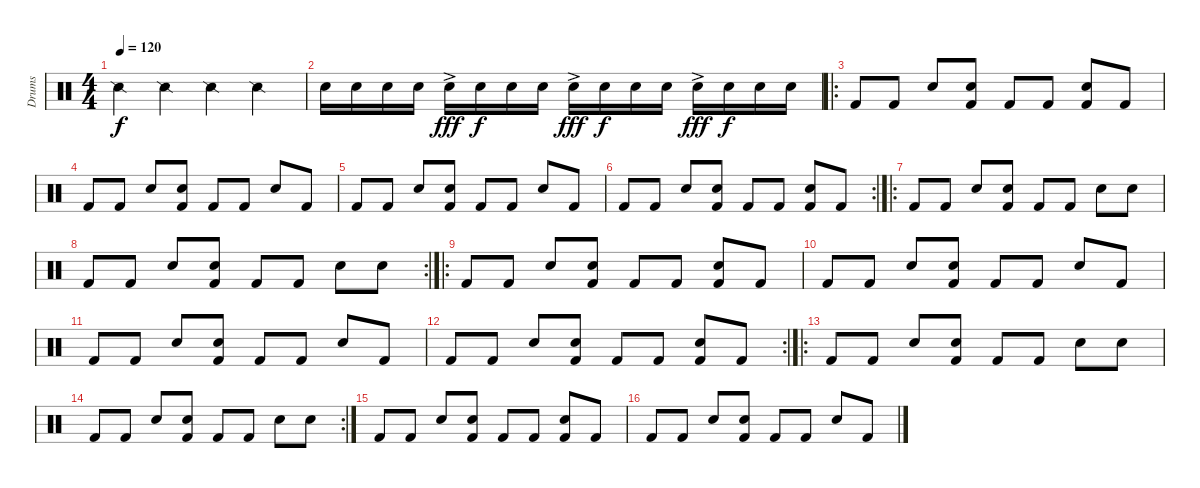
\track ("Drums" "Drums") {instrument percussion}
\staff {score}
\articulation defaults
\ts (4 4)
\tempo 120
\clef neutral
\ks c "Snare (side stick) 2".4{dy f} "Snare (side stick) 2".4 "Snare (side stick) 2".4 "Snare (side stick) 2".4
|
"Snare (hit) 2".16 "Snare (hit) 2".16 "Snare (hit) 2".16 "Snare (hit) 2".16 "Snare (hit) 2"{ac}.16{dy fff} "Snare (hit) 2".16{dy f} "Snare (hit) 2".16 "Snare (hit) 2".16 "Snare (hit) 2"{ac}.16{dy fff} "Snare (hit) 2".16{dy f} "Snare (hit) 2".16 "Snare (hit) 2".16 "Snare (hit) 2"{ac}.16{dy fff} "Snare (hit) 2".16{dy f} "Snare (hit) 2".16 "Snare (hit) 2".16 |
\ro "Kick (hit) 2".8 "Kick (hit) 2".8 "Snare (hit) 2".8
("Snare (hit) 2" "Kick (hit) 2").8 "Kick (hit) 2".8 "Kick (hit) 2".8 ("Snare (hit) 2" "Kick (hit) 2").8 "Kick (hit) 2".8 |
"Kick (hit) 2".8 "Kick (hit) 2".8 "Snare (hit) 2".8 ("Snare (hit) 2" "Kick (hit) 2").8 "Kick (hit) 2".8 "Kick (hit) 2".8 "Snare (hit) 2".8 "Kick (hit) 2".8 |
"Kick (hit) 2".8 "Kick (hit) 2".8 "Snare (hit) 2".8 ("Snare (hit) 2" "Kick (hit) 2").8 "Kick (hit) 2".8 "Kick (hit) 2".8 "Snare (hit) 2".8 "Kick (hit) 2".8 |
\rc 2 "Kick (hit) 2".8 "Kick (hit) 2".8 "Snare (hit) 2".8
("Snare (hit) 2" "Kick (hit) 2").8 "Kick (hit) 2".8 "Kick (hit) 2".8 ("Snare (hit) 2" "Kick (hit) 2").8 "Kick (hit) 2".8 |
\ro "Kick (hit) 2".8 "Kick (hit) 2".8 "Snare (hit) 2".8
("Snare (hit) 2" "Kick (hit) 2").8 "Kick (hit) 2".8 "Kick (hit) 2".8 "Snare (hit) 2".8 "Snare (hit) 2".8 |
\rc 2 "Kick (hit) 2".8 "Kick (hit) 2".8 "Snare (hit) 2".8
("Snare (hit) 2" "Kick (hit) 2").8 "Kick (hit) 2".8 "Kick (hit) 2".8 "Snare (hit) 2".8 "Snare (hit) 2".8 |
\ro "Kick (hit) 2".8 "Kick (hit) 2".8 "Snare (hit) 2".8
("Snare (hit) 2" "Kick (hit) 2").8 "Kick (hit) 2".8 "Kick (hit) 2".8 ("Snare (hit) 2" "Kick (hit) 2").8 "Kick (hit) 2".8 |
"Kick (hit) 2".8 "Kick (hit) 2".8 "Snare (hit) 2".8 ("Snare (hit) 2" "Kick (hit) 2").8 "Kick (hit) 2".8 "Kick (hit) 2".8 "Snare (hit) 2".8 "Kick (hit) 2".8 |
"Kick (hit) 2".8 "Kick (hit) 2".8 "Snare (hit) 2".8 ("Snare (hit) 2" "Kick (hit) 2").8 "Kick (hit) 2".8 "Kick (hit) 2".8 "Snare (hit) 2".8 "Kick (hit) 2".8 |
\rc 2 "Kick (hit) 2".8 "Kick (hit) 2".8 "Snare (hit) 2".8
("Snare (hit) 2" "Kick (hit) 2").8 "Kick (hit) 2".8 "Kick (hit) 2".8 ("Snare (hit) 2" "Kick (hit) 2").8 "Kick (hit) 2".8 |
\ro "Kick (hit) 2".8 "Kick (hit) 2".8 "Snare (hit) 2".8
("Snare (hit) 2" "Kick (hit) 2").8 "Kick (hit) 2".8 "Kick (hit) 2".8 "Snare (hit) 2".8 "Snare (hit) 2".8 |
\rc 2 "Kick (hit) 2".8 "Kick (hit) 2".8 "Snare (hit) 2".8
("Snare (hit) 2" "Kick (hit) 2").8 "Kick (hit) 2".8 "Kick (hit) 2".8 "Snare (hit) 2".8 "Snare (hit) 2".8 |
"Kick (hit) 2".8 "Kick (hit) 2".8 "Snare (hit) 2".8 ("Snare (hit) 2" "Kick (hit) 2").8 "Kick (hit) 2".8 "Kick (hit) 2".8 ("Snare (hit) 2" "Kick (hit) 2").8 "Kick (hit) 2".8 |
"Kick (hit) 2".8 "Kick (hit) 2".8 "Snare (hit) 2".8 ("Snare (hit) 2" "Kick (hit) 2").8 "Kick (hit) 2".8 "Kick (hit) 2".8 "Snare (hit) 2".8 "Kick (hit) 2".8
